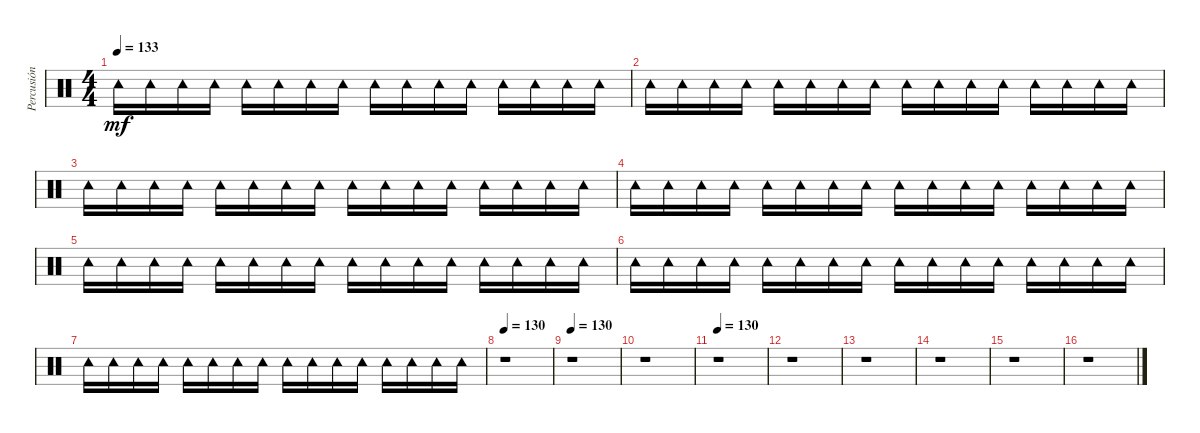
\track ("Percusión extra" "Percusión ") {instrument percussion}
\staff {score}
\articulation defaults
\ts (4 4)
\tempo 133
\clef neutral
\ks c "Tambourine (hit)".16{dy mf} "Tambourine (hit)".16 "Tambourine (hit)".16 "Tambourine (hit)".16 "Tambourine (hit)".16 "Tambourine (hit)".16 "Tambourine (hit)".16 "Tambourine (hit)".16 "Tambourine (hit)".16 "Tambourine (hit)".16 "Tambourine (hit)".16 "Tambourine (hit)".16 "Tambourine (hit)".16 "Tambourine (hit)".16 "Tambourine (hit)".16 "Tambourine (hit)".16
|
"Tambourine (hit)".16 "Tambourine (hit)".16 "Tambourine (hit)".16 "Tambourine (hit)".16 "Tambourine (hit)".16 "Tambourine (hit)".16 "Tambourine (hit)".16 "Tambourine (hit)".16 "Tambourine (hit)".16 "Tambourine (hit)".16 "Tambourine (hit)".16 "Tambourine (hit)".16 "Tambourine (hit)".16 "Tambourine (hit)".16 "Tambourine (hit)".16 "Tambourine (hit)".16 |
"Tambourine (hit)".16 "Tambourine (hit)".16 "Tambourine (hit)".16 "Tambourine (hit)".16 "Tambourine (hit)".16 "Tambourine (hit)".16 "Tambourine (hit)".16 "Tambourine (hit)".16 "Tambourine (hit)".16 "Tambourine (hit)".16 "Tambourine (hit)".16 "Tambourine (hit)".16 "Tambourine (hit)".16 "Tambourine (hit)".16 "Tambourine (hit)".16 "Tambourine (hit)".16 |
"Tambourine (hit)".16 "Tambourine (hit)".16 "Tambourine (hit)".16 "Tambourine (hit)".16 "Tambourine (hit)".16 "Tambourine (hit)".16 "Tambourine (hit)".16 "Tambourine (hit)".16 "Tambourine (hit)".16 "Tambourine (hit)".16 "Tambourine (hit)".16 "Tambourine (hit)".16 "Tambourine (hit)".16 "Tambourine (hit)".16 "Tambourine (hit)".16 "Tambourine (hit)".16 |
"Tambourine (hit)".16 "Tambourine (hit)".16 "Tambourine (hit)".16 "Tambourine (hit)".16 "Tambourine (hit)".16 "Tambourine (hit)".16 "Tambourine (hit)".16 "Tambourine (hit)".16 "Tambourine (hit)".16 "Tambourine (hit)".16 "Tambourine (hit)".16 "Tambourine (hit)".16 "Tambourine (hit)".16 "Tambourine (hit)".16 "Tambourine (hit)".16 "Tambourine (hit)".16 |
"Tambourine (hit)".16 "Tambourine (hit)".16 "Tambourine (hit)".16 "Tambourine (hit)".16 "Tambourine (hit)".16 "Tambourine (hit)".16 "Tambourine (hit)".16 "Tambourine (hit)".16 "Tambourine (hit)".16 "Tambourine (hit)".16 "Tambourine (hit)".16 "Tambourine (hit)".16 "Tambourine (hit)".16 "Tambourine (hit)".16 "Tambourine (hit)".16 "Tambourine (hit)".16 |
"Tambourine (hit)".16 "Tambourine (hit)".16 "Tambourine (hit)".16 "Tambourine (hit)".16 "Tambourine (hit)".16 "Tambourine (hit)".16 "Tambourine (hit)".16 "Tambourine (hit)".16 "Tambourine (hit)".16 "Tambourine (hit)".16 "Tambourine (hit)".16 "Tambourine (hit)".16 "Tambourine (hit)".16 "Tambourine (hit)".16 "Tambourine (hit)".16 "Tambourine (hit)".16 |
\tempo 130
r.1 |
\tempo 130
r.1 |
r.1 |
\tempo 130
r.1 |
r.1 |
r.1 |
r.1 |
r.1 |
r.1
